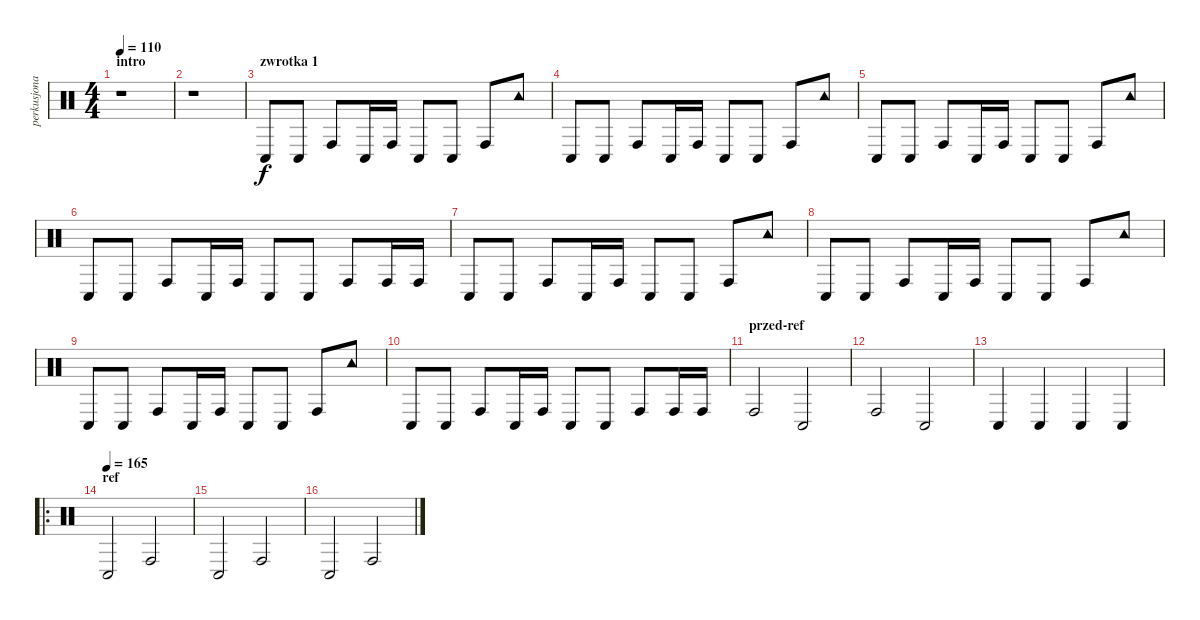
\track ("perkusjonalia" "perkusjona") {instrument percussion}
\staff {score}
\articulation defaults
\ts (4 4)
\section ("" "intro")
\tempo 110
\clef neutral
\ks c
r.1{dy f} |
r.1 |
\section ("" "zwrotka 1")
"Conga low (hit)".8 "Conga low (hit)".8 "Conga high (hit)".8 "Conga low (hit)".16 "Conga high (hit)".16 "Conga low (hit)".8 "Conga low (hit)".8 "Conga high (hit)".8 "Tambourine (hit)".8 |
"Conga low (hit)".8 "Conga low (hit)".8 "Conga high (hit)".8 "Conga low (hit)".16 "Conga high (hit)".16 "Conga low (hit)".8 "Conga low (hit)".8 "Conga high (hit)".8 "Tambourine (hit)".8 |
"Conga low (hit)".8 "Conga low (hit)".8 "Conga high (hit)".8 "Conga low (hit)".16 "Conga high (hit)".16 "Conga low (hit)".8 "Conga low (hit)".8 "Conga high (hit)".8 "Tambourine (hit)".8 |
"Conga low (hit)".8 "Conga low (hit)".8 "Conga high (hit)".8 "Conga low (hit)".16 "Conga high (hit)".16 "Conga low (hit)".8 "Conga low (hit)".8 "Conga high (hit)".8 "Conga high (hit)".16 "Conga high (hit)".16 |
"Conga low (hit)".8 "Conga low (hit)".8 "Conga high (hit)".8 "Conga low (hit)".16 "Conga high (hit)".16 "Conga low (hit)".8 "Conga low (hit)".8 "Conga high (hit)".8 "Tambourine (hit)".8 |
"Conga low (hit)".8 "Conga low (hit)".8 "Conga high (hit)".8 "Conga low (hit)".16 "Conga high (hit)".16 "Conga low (hit)".8 "Conga low (hit)".8 "Conga high (hit)".8 "Tambourine (hit)".8 |
"Conga low (hit)".8 "Conga low (hit)".8 "Conga high (hit)".8 "Conga low (hit)".16 "Conga high (hit)".16 "Conga low (hit)".8 "Conga low (hit)".8 "Conga high (hit)".8 "Tambourine (hit)".8 |
"Conga low (hit)".8 "Conga low (hit)".8 "Conga high (hit)".8 "Conga low (hit)".16 "Conga high (hit)".16 "Conga low (hit)".8 "Conga low (hit)".8 "Conga high (hit)".8 "Conga high (hit)".16 "Conga high (hit)".16 |
\section ("" "przed-ref")
"Conga high (hit)".2 "Conga low (hit)".2 |
"Conga high (hit)".2 "Conga low (hit)".2 |
"Conga low (hit)".4 "Conga low (hit)".4 "Conga low (hit)".4 "Conga low (hit)".4 |
\ro
\section ("" "ref")
\tempo (165)
"Conga low (hit)".2 "Conga high (hit)".2 |
"Conga low (hit)".2 "Conga high (hit)".2 |
"Conga low (hit)".2 "Conga high (hit)".2
